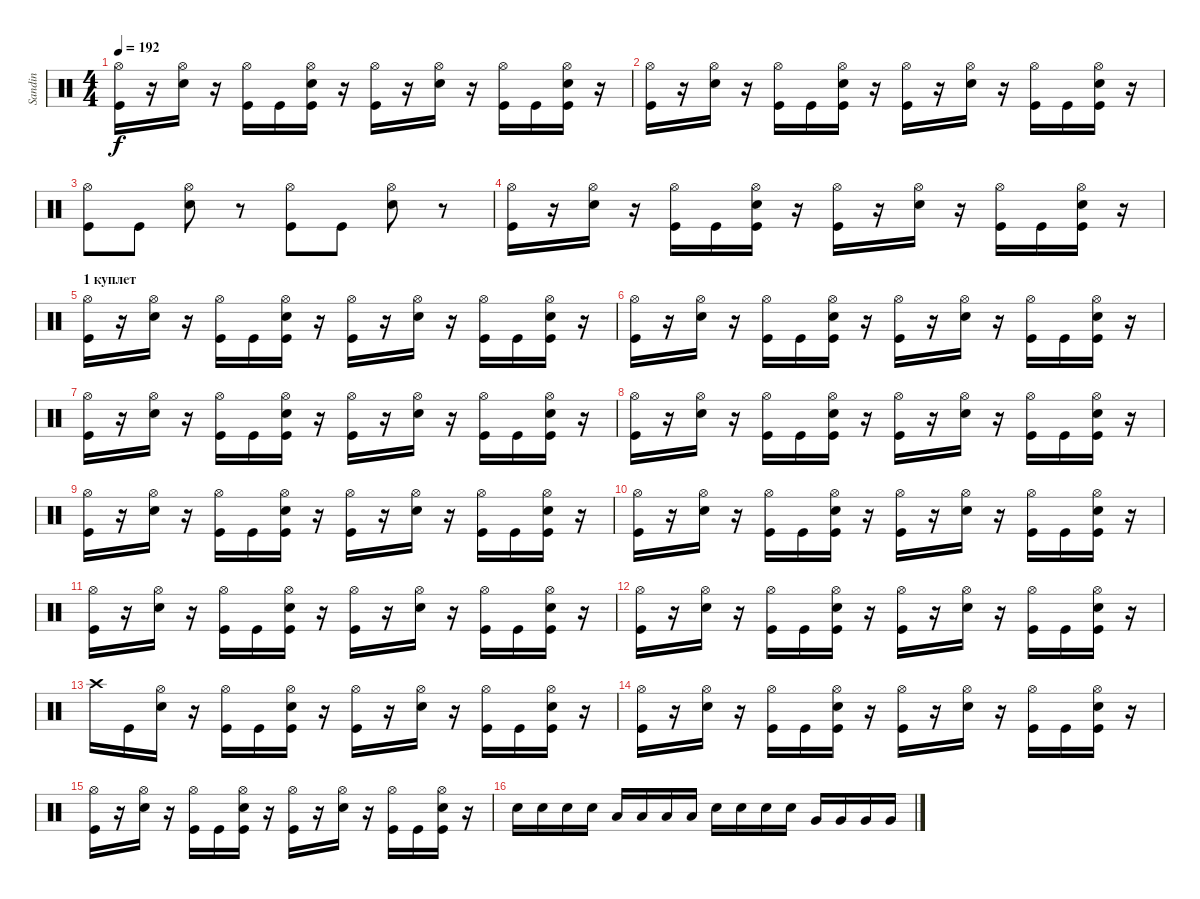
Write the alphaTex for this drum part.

\track ("Sandin" "Sandin") {instrument percussion}
\staff {score}
\articulation defaults
\ts (4 4)
\tempo 192
\clef neutral
\ks c
("Hi-Hat (open)" "Kick (hit)").16{dy f} r.16 ("Hi-Hat (open)" "Electric Snare (hit)").16 r.16 ("Hi-Hat (open)" "Kick (hit)").16 "Kick (hit)".16 ("Hi-Hat (open)" "Electric Snare (hit)" "Kick (hit)").16 r.16 ("Hi-Hat (open)" "Kick (hit)").16 r.16 ("Hi-Hat (open)" "Electric Snare (hit)").16 r.16 ("Hi-Hat (open)" "Kick (hit)").16 "Kick (hit)".16 ("Hi-Hat (open)" "Electric Snare (hit)" "Kick (hit)").16 r.16 |
("Hi-Hat (open)" "Kick (hit)").16 r.16 ("Hi-Hat (open)" "Electric Snare (hit)").16 r.16 ("Hi-Hat (open)" "Kick (hit)").16 "Kick (hit)".16 ("Hi-Hat (open)" "Electric Snare (hit)" "Kick (hit)").16 r.16 ("Hi-Hat (open)" "Kick (hit)").16 r.16 ("Hi-Hat (open)" "Electric Snare (hit)").16 r.16 ("Hi-Hat (open)" "Kick (hit)").16 "Kick (hit)".16 ("Hi-Hat (open)" "Electric Snare (hit)" "Kick (hit)").16 r.16 |
("Hi-Hat (open)" "Kick (hit)").8 "Kick (hit)".8 ("Hi-Hat (open)" "Electric Snare (hit)").8 r.8 ("Hi-Hat (open)" "Kick (hit)").8 "Kick (hit)".8 ("Hi-Hat (open)" "Electric Snare (hit)").8 r.8 |
("Hi-Hat (open)" "Kick (hit)").16 r.16 ("Hi-Hat (open)" "Electric Snare (hit)").16 r.16 ("Hi-Hat (open)" "Kick (hit)").16 "Kick (hit)".16 ("Hi-Hat (open)" "Electric Snare (hit)" "Kick (hit)").16 r.16 ("Hi-Hat (open)" "Kick (hit)").16 r.16 ("Hi-Hat (open)" "Electric Snare (hit)").16 r.16 ("Hi-Hat (open)" "Kick (hit)").16 "Kick (hit)".16 ("Hi-Hat (open)" "Electric Snare (hit)" "Kick (hit)").16 r.16 |
\section ("" "1 куплет")
("Hi-Hat (open)" "Kick (hit)").16 r.16 ("Hi-Hat (open)" "Electric Snare (hit)").16 r.16 ("Hi-Hat (open)" "Kick (hit)").16 "Kick (hit)".16 ("Hi-Hat (open)" "Electric Snare (hit)" "Kick (hit)").16 r.16 ("Hi-Hat (open)" "Kick (hit)").16 r.16 ("Hi-Hat (open)" "Electric Snare (hit)").16 r.16 ("Hi-Hat (open)" "Kick (hit)").16 "Kick (hit)".16 ("Hi-Hat (open)" "Electric Snare (hit)" "Kick (hit)").16 r.16 |
("Hi-Hat (open)" "Kick (hit)").16 r.16 ("Hi-Hat (open)" "Electric Snare (hit)").16 r.16 ("Hi-Hat (open)" "Kick (hit)").16 "Kick (hit)".16 ("Hi-Hat (open)" "Electric Snare (hit)" "Kick (hit)").16 r.16 ("Hi-Hat (open)" "Kick (hit)").16 r.16 ("Hi-Hat (open)" "Electric Snare (hit)").16 r.16 ("Hi-Hat (open)" "Kick (hit)").16 "Kick (hit)".16 ("Hi-Hat (open)" "Electric Snare (hit)" "Kick (hit)").16 r.16 |
("Hi-Hat (open)" "Kick (hit)").16 r.16 ("Hi-Hat (open)" "Electric Snare (hit)").16 r.16 ("Hi-Hat (open)" "Kick (hit)").16 "Kick (hit)".16 ("Hi-Hat (open)" "Electric Snare (hit)" "Kick (hit)").16 r.16 ("Hi-Hat (open)" "Kick (hit)").16 r.16 ("Hi-Hat (open)" "Electric Snare (hit)").16 r.16 ("Hi-Hat (open)" "Kick (hit)").16 "Kick (hit)".16 ("Hi-Hat (open)" "Electric Snare (hit)" "Kick (hit)").16 r.16 |
("Hi-Hat (open)" "Kick (hit)").16 r.16 ("Hi-Hat (open)" "Electric Snare (hit)").16 r.16 ("Hi-Hat (open)" "Kick (hit)").16 "Kick (hit)".16 ("Hi-Hat (open)" "Electric Snare (hit)" "Kick (hit)").16 r.16 ("Hi-Hat (open)" "Kick (hit)").16 r.16 ("Hi-Hat (open)" "Electric Snare (hit)").16 r.16 ("Hi-Hat (open)" "Kick (hit)").16 "Kick (hit)".16 ("Hi-Hat (open)" "Electric Snare (hit)" "Kick (hit)").16 r.16 |
("Hi-Hat (open)" "Kick (hit)").16 r.16 ("Hi-Hat (open)" "Electric Snare (hit)").16 r.16 ("Hi-Hat (open)" "Kick (hit)").16 "Kick (hit)".16 ("Hi-Hat (open)" "Electric Snare (hit)" "Kick (hit)").16 r.16 ("Hi-Hat (open)" "Kick (hit)").16 r.16 ("Hi-Hat (open)" "Electric Snare (hit)").16 r.16 ("Hi-Hat (open)" "Kick (hit)").16 "Kick (hit)".16 ("Hi-Hat (open)" "Electric Snare (hit)" "Kick (hit)").16 r.16 |
("Hi-Hat (open)" "Kick (hit)").16 r.16 ("Hi-Hat (open)" "Electric Snare (hit)").16 r.16 ("Hi-Hat (open)" "Kick (hit)").16 "Kick (hit)".16 ("Hi-Hat (open)" "Electric Snare (hit)" "Kick (hit)").16 r.16 ("Hi-Hat (open)" "Kick (hit)").16 r.16 ("Hi-Hat (open)" "Electric Snare (hit)").16 r.16 ("Hi-Hat (open)" "Kick (hit)").16 "Kick (hit)".16 ("Hi-Hat (open)" "Electric Snare (hit)" "Kick (hit)").16 r.16 |
("Hi-Hat (open)" "Kick (hit)").16 r.16 ("Hi-Hat (open)" "Electric Snare (hit)").16 r.16 ("Hi-Hat (open)" "Kick (hit)").16 "Kick (hit)".16 ("Hi-Hat (open)" "Electric Snare (hit)" "Kick (hit)").16 r.16 ("Hi-Hat (open)" "Kick (hit)").16 r.16 ("Hi-Hat (open)" "Electric Snare (hit)").16 r.16 ("Hi-Hat (open)" "Kick (hit)").16 "Kick (hit)".16 ("Hi-Hat (open)" "Electric Snare (hit)" "Kick (hit)").16 r.16 |
("Hi-Hat (open)" "Kick (hit)").16 r.16 ("Hi-Hat (open)" "Electric Snare (hit)").16 r.16 ("Hi-Hat (open)" "Kick (hit)").16 "Kick (hit)".16 ("Hi-Hat (open)" "Electric Snare (hit)" "Kick (hit)").16 r.16 ("Hi-Hat (open)" "Kick (hit)").16 r.16 ("Hi-Hat (open)" "Electric Snare (hit)").16 r.16 ("Hi-Hat (open)" "Kick (hit)").16 "Kick (hit)".16 ("Hi-Hat (open)" "Electric Snare (hit)" "Kick (hit)").16 r.16 |
"Crash high (hit)".16 "Kick (hit)".16 ("Hi-Hat (open)" "Electric Snare (hit)").16 r.16 ("Hi-Hat (open)" "Kick (hit)").16 "Kick (hit)".16 ("Hi-Hat (open)" "Electric Snare (hit)" "Kick (hit)").16 r.16 ("Hi-Hat (open)" "Kick (hit)").16 r.16 ("Hi-Hat (open)" "Electric Snare (hit)").16 r.16 ("Hi-Hat (open)" "Kick (hit)").16 "Kick (hit)".16 ("Hi-Hat (open)" "Electric Snare (hit)" "Kick (hit)").16 r.16 |
("Hi-Hat (open)" "Kick (hit)").16 r.16 ("Hi-Hat (open)" "Electric Snare (hit)").16 r.16 ("Hi-Hat (open)" "Kick (hit)").16 "Kick (hit)".16 ("Hi-Hat (open)" "Electric Snare (hit)" "Kick (hit)").16 r.16 ("Hi-Hat (open)" "Kick (hit)").16 r.16 ("Hi-Hat (open)" "Electric Snare (hit)").16 r.16 ("Hi-Hat (open)" "Kick (hit)").16 "Kick (hit)".16 ("Hi-Hat (open)" "Electric Snare (hit)" "Kick (hit)").16 r.16 |
("Hi-Hat (open)" "Kick (hit)").16 r.16 ("Hi-Hat (open)" "Electric Snare (hit)").16 r.16 ("Hi-Hat (open)" "Kick (hit)").16 "Kick (hit)".16 ("Hi-Hat (open)" "Electric Snare (hit)" "Kick (hit)").16 r.16 ("Hi-Hat (open)" "Kick (hit)").16 r.16 ("Hi-Hat (open)" "Electric Snare (hit)").16 r.16 ("Hi-Hat (open)" "Kick (hit)").16 "Kick (hit)".16 ("Hi-Hat (open)" "Electric Snare (hit)" "Kick (hit)").16 r.16 |
"Electric Snare (hit)".16 "Electric Snare (hit)".16 "Electric Snare (hit)".16 "Electric Snare (hit)".16 "Low Tom (hit)".16 "Low Tom (hit)".16 "Low Tom (hit)".16 "Low Tom (hit)".16 "Electric Snare (hit)".16 "Electric Snare (hit)".16 "Electric Snare (hit)".16 "Electric Snare (hit)".16 "Very Low Tom (hit)".16 "Very Low Tom (hit)".16 "Very Low Tom (hit)".16 "Very Low Tom (hit)".16
